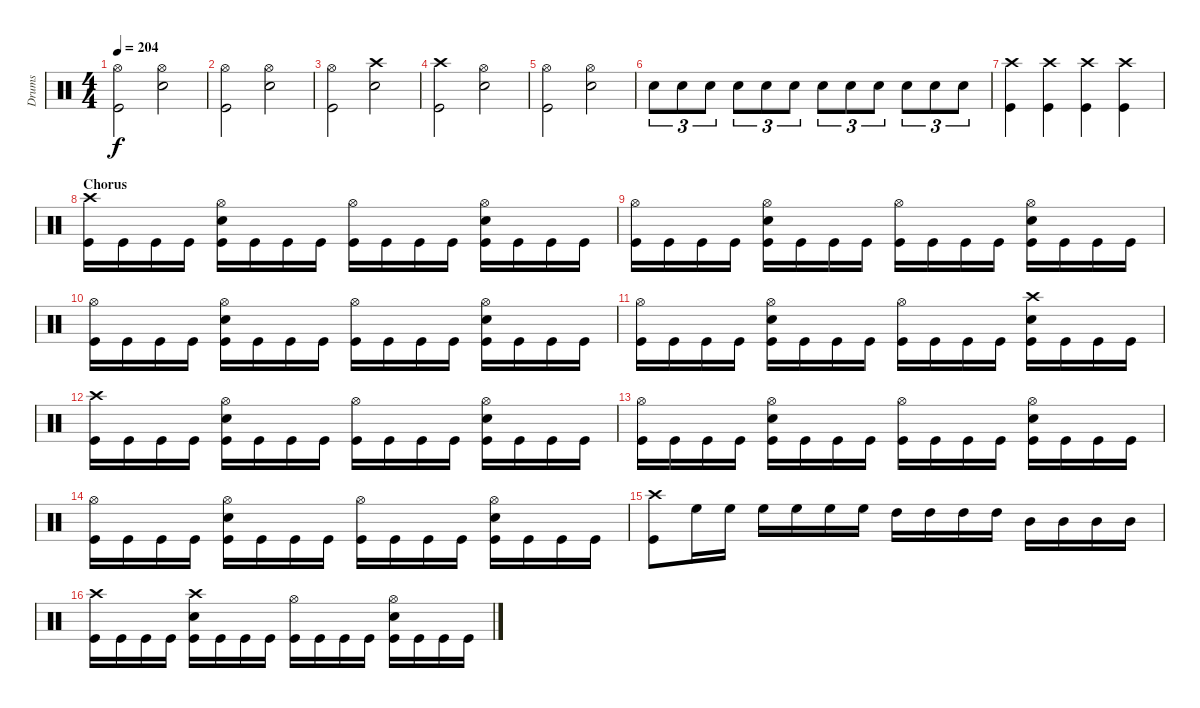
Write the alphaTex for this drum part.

\track ("Drums" "Drums") {instrument percussion}
\staff {score}
\articulation defaults
\ts (4 4)
\tempo 204
\clef neutral
\ks c
("Hi-Hat (open)" "Kick (hit)").2{dy f} ("Hi-Hat (open)" "Snare (hit) 2").2 |
("Hi-Hat (open)" "Kick (hit)").2 ("Hi-Hat (open)" "Snare (hit) 2").2 |
("Hi-Hat (open)" "Kick (hit)").2 ("Crash high (hit)" "Snare (hit) 2").2 |
("Crash high (hit)" "Kick (hit)").2 ("Hi-Hat (open)" "Snare (hit) 2").2 |
("Hi-Hat (open)" "Kick (hit)").2 ("Hi-Hat (open)" "Snare (hit) 2").2 |
"Snare (hit) 2".8{tu (3 2)} "Snare (hit) 2".8{tu (3 2)} "Snare (hit) 2".8{tu (3 2)} "Snare (hit) 2".8{tu (3 2)} "Snare (hit) 2".8{tu (3 2)} "Snare (hit) 2".8{tu (3 2)} "Snare (hit) 2".8{tu (3 2)} "Snare (hit) 2".8{tu (3 2)} "Snare (hit) 2".8{tu (3 2)} "Snare (hit) 2".8{tu (3 2)} "Snare (hit) 2".8{tu (3 2)} "Snare (hit) 2".8{tu (3 2)} |
("Crash high (hit)" "Kick (hit)").4 ("Crash high (hit)" "Kick (hit)").4 ("Crash high (hit)" "Kick (hit)").4 ("Crash high (hit)" "Kick (hit)").4 |
\section ("" "Chorus")
("Crash high (hit)" "Kick (hit)").16 "Kick (hit)".16 "Kick (hit)".16 "Kick (hit)".16 ("Hi-Hat (open)" "Snare (hit) 2" "Kick (hit)").16 "Kick (hit)".16 "Kick (hit)".16 "Kick (hit)".16 ("Hi-Hat (open)" "Kick (hit)").16 "Kick (hit)".16 "Kick (hit)".16 "Kick (hit)".16 ("Hi-Hat (open)" "Snare (hit) 2" "Kick (hit)").16 "Kick (hit)".16 "Kick (hit)".16 "Kick (hit)".16 |
("Hi-Hat (open)" "Kick (hit)").16 "Kick (hit)".16 "Kick (hit)".16 "Kick (hit)".16 ("Hi-Hat (open)" "Snare (hit) 2" "Kick (hit)").16 "Kick (hit)".16 "Kick (hit)".16 "Kick (hit)".16 ("Hi-Hat (open)" "Kick (hit)").16 "Kick (hit)".16 "Kick (hit)".16 "Kick (hit)".16 ("Hi-Hat (open)" "Snare (hit) 2" "Kick (hit)").16 "Kick (hit)".16 "Kick (hit)".16 "Kick (hit)".16 |
("Hi-Hat (open)" "Kick (hit)").16 "Kick (hit)".16 "Kick (hit)".16 "Kick (hit)".16 ("Hi-Hat (open)" "Snare (hit) 2" "Kick (hit)").16 "Kick (hit)".16 "Kick (hit)".16 "Kick (hit)".16 ("Hi-Hat (open)" "Kick (hit)").16 "Kick (hit)".16 "Kick (hit)".16 "Kick (hit)".16 ("Hi-Hat (open)" "Snare (hit) 2" "Kick (hit)").16 "Kick (hit)".16 "Kick (hit)".16 "Kick (hit)".16 |
("Hi-Hat (open)" "Kick (hit)").16 "Kick (hit)".16 "Kick (hit)".16 "Kick (hit)".16 ("Hi-Hat (open)" "Snare (hit) 2" "Kick (hit)").16 "Kick (hit)".16 "Kick (hit)".16 "Kick (hit)".16 ("Hi-Hat (open)" "Kick (hit)").16 "Kick (hit)".16 "Kick (hit)".16 "Kick (hit)".16 ("Crash high (hit)" "Snare (hit) 2" "Kick (hit)").16 "Kick (hit)".16 "Kick (hit)".16 "Kick (hit)".16 |
("Crash high (hit)" "Kick (hit)").16 "Kick (hit)".16 "Kick (hit)".16 "Kick (hit)".16 ("Hi-Hat (open)" "Snare (hit) 2" "Kick (hit)").16 "Kick (hit)".16 "Kick (hit)".16 "Kick (hit)".16 ("Hi-Hat (open)" "Kick (hit)").16 "Kick (hit)".16 "Kick (hit)".16 "Kick (hit)".16 ("Hi-Hat (open)" "Snare (hit) 2" "Kick (hit)").16 "Kick (hit)".16 "Kick (hit)".16 "Kick (hit)".16 |
("Hi-Hat (open)" "Kick (hit)").16 "Kick (hit)".16 "Kick (hit)".16 "Kick (hit)".16 ("Hi-Hat (open)" "Snare (hit) 2" "Kick (hit)").16 "Kick (hit)".16 "Kick (hit)".16 "Kick (hit)".16 ("Hi-Hat (open)" "Kick (hit)").16 "Kick (hit)".16 "Kick (hit)".16 "Kick (hit)".16 ("Hi-Hat (open)" "Snare (hit) 2" "Kick (hit)").16 "Kick (hit)".16 "Kick (hit)".16 "Kick (hit)".16 |
("Hi-Hat (open)" "Kick (hit)").16 "Kick (hit)".16 "Kick (hit)".16 "Kick (hit)".16 ("Hi-Hat (open)" "Snare (hit) 2" "Kick (hit)").16 "Kick (hit)".16 "Kick (hit)".16 "Kick (hit)".16 ("Hi-Hat (open)" "Kick (hit)").16 "Kick (hit)".16 "Kick (hit)".16 "Kick (hit)".16 ("Hi-Hat (open)" "Snare (hit) 2" "Kick (hit)").16 "Kick (hit)".16 "Kick (hit)".16 "Kick (hit)".16 |
("Crash high (hit)" "Kick (hit)").8 "High Floor Tom (hit)".16 "High Floor Tom (hit)".16 "High Floor Tom (hit)".16 "High Floor Tom (hit)".16 "High Floor Tom (hit)".16 "High Floor Tom (hit)".16 "High Tom (hit)".16 "High Tom (hit)".16 "High Tom (hit)".16 "High Tom (hit)".16 "Mid Tom (hit)".16 "Mid Tom (hit)".16 "Mid Tom (hit)".16 "Mid Tom (hit)".16 |
("Crash high (hit)" "Kick (hit)").16 "Kick (hit)".16 "Kick (hit)".16 "Kick (hit)".16 ("Crash high (hit)" "Snare (hit) 2" "Kick (hit)").16 "Kick (hit)".16 "Kick (hit)".16 "Kick (hit)".16 ("Hi-Hat (open)" "Kick (hit)").16 "Kick (hit)".16 "Kick (hit)".16 "Kick (hit)".16 ("Hi-Hat (open)" "Snare (hit) 2" "Kick (hit)").16 "Kick (hit)".16 "Kick (hit)".16 "Kick (hit)".16
